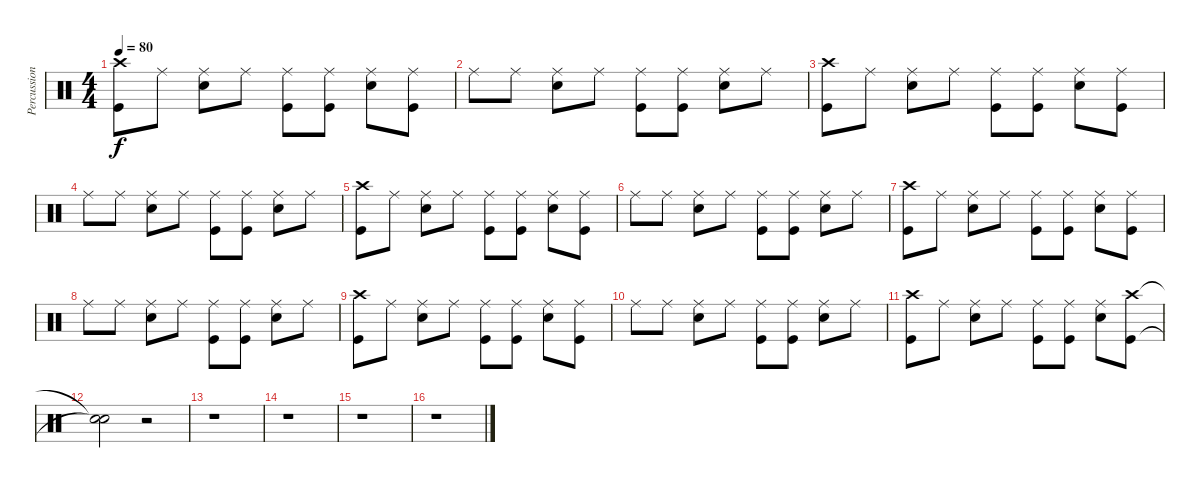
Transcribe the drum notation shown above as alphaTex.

\track ("Percussions" "Percussion") {instrument percussion}
\staff {score}
\articulation defaults
\ts (4 4)
\tempo 80
\clef neutral
\ks c
("Crash high (hit)" "Kick (hit)").8{dy f} "Ride (middle)".8 ("Ride (middle)" "Snare (hit) 2").8 "Ride (middle)".8 ("Ride (middle)" "Kick (hit)").8 ("Ride (middle)" "Kick (hit)").8 ("Ride (middle)" "Snare (hit) 2").8 ("Ride (middle)" "Kick (hit)").8 |
"Ride (middle)".8 "Ride (middle)".8 ("Ride (middle)" "Snare (hit) 2").8 "Ride (middle)".8 ("Ride (middle)" "Kick (hit)").8 ("Ride (middle)" "Kick (hit)").8 ("Ride (middle)" "Snare (hit) 2").8 "Ride (middle)".8 |
("Crash high (hit)" "Kick (hit)").8 "Ride (middle)".8 ("Ride (middle)" "Snare (hit) 2").8 "Ride (middle)".8 ("Ride (middle)" "Kick (hit)").8 ("Ride (middle)" "Kick (hit)").8 ("Ride (middle)" "Snare (hit) 2").8 ("Ride (middle)" "Kick (hit)").8 |
"Ride (middle)".8 "Ride (middle)".8 ("Ride (middle)" "Snare (hit) 2").8 "Ride (middle)".8 ("Ride (middle)" "Kick (hit)").8 ("Ride (middle)" "Kick (hit)").8 ("Ride (middle)" "Snare (hit) 2").8 "Ride (middle)".8 |
("Crash high (hit)" "Kick (hit)").8 "Ride (middle)".8 ("Ride (middle)" "Snare (hit) 2").8 "Ride (middle)".8 ("Ride (middle)" "Kick (hit)").8 ("Ride (middle)" "Kick (hit)").8 ("Ride (middle)" "Snare (hit) 2").8 ("Ride (middle)" "Kick (hit)").8 |
"Ride (middle)".8 "Ride (middle)".8 ("Ride (middle)" "Snare (hit) 2").8 "Ride (middle)".8 ("Ride (middle)" "Kick (hit)").8 ("Ride (middle)" "Kick (hit)").8 ("Ride (middle)" "Snare (hit) 2").8 "Ride (middle)".8 |
("Crash high (hit)" "Kick (hit)").8 "Ride (middle)".8 ("Ride (middle)" "Snare (hit) 2").8 "Ride (middle)".8 ("Ride (middle)" "Kick (hit)").8 ("Ride (middle)" "Kick (hit)").8 ("Ride (middle)" "Snare (hit) 2").8 ("Ride (middle)" "Kick (hit)").8 |
"Ride (middle)".8 "Ride (middle)".8 ("Ride (middle)" "Snare (hit) 2").8 "Ride (middle)".8 ("Ride (middle)" "Kick (hit)").8 ("Ride (middle)" "Kick (hit)").8 ("Ride (middle)" "Snare (hit) 2").8 "Ride (middle)".8 |
("Crash high (hit)" "Kick (hit)").8 "Ride (middle)".8 ("Ride (middle)" "Snare (hit) 2").8 "Ride (middle)".8 ("Ride (middle)" "Kick (hit)").8 ("Ride (middle)" "Kick (hit)").8 ("Ride (middle)" "Snare (hit) 2").8 ("Ride (middle)" "Kick (hit)").8 |
"Ride (middle)".8 "Ride (middle)".8 ("Ride (middle)" "Snare (hit) 2").8 "Ride (middle)".8 ("Ride (middle)" "Kick (hit)").8 ("Ride (middle)" "Kick (hit)").8 ("Ride (middle)" "Snare (hit) 2").8 "Ride (middle)".8 |
("Crash high (hit)" "Kick (hit)").8 "Ride (middle)".8 ("Ride (middle)" "Snare (hit) 2").8 "Ride (middle)".8 ("Ride (middle)" "Kick (hit)").8 ("Ride (middle)" "Kick (hit)").8 ("Ride (middle)" "Snare (hit) 2").8 ("Crash high (hit)" "Kick (hit)").8 |
("Snare (hit)"{t} "Snare (hit)"{t}).2 r.2 |
r.1 |
r.1 |
r.1 |
r.1
